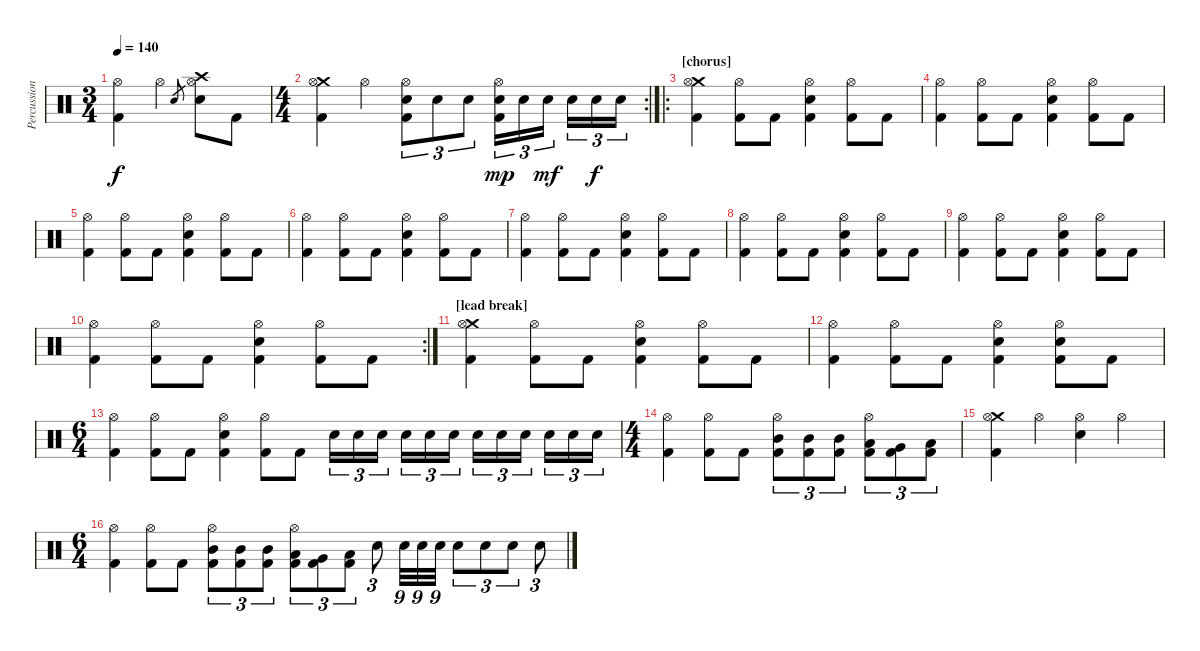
\track ("Percussion" "Percussion") {instrument percussion}
\staff {score}
\articulation defaults
\ts (3 4)
\tempo 140
\clef neutral
\ks c
("Hi-Hat (open)" "Kick (hit) 2").4{dy f} "Hi-Hat (open)".4 "Electric Snare (hit)".8{gr} ("Crash high (hit)" "Hi-Hat (open)" "Electric Snare (hit)").8 "Kick (hit) 2".8 |
\rc 2
\ts (4 4)
("Crash medium (hit)" "Hi-Hat (open)" "Kick (hit) 2").4 "Hi-Hat (open)".4 ("Hi-Hat (open)" "Electric Snare (hit)" "Kick (hit) 2").8{tu (3 2)} "Electric Snare (hit)".8{tu (3 2)} "Electric Snare (hit)".8{tu (3 2)} ("Hi-Hat (open)" "Electric Snare (hit)" "Kick (hit) 2").16{tu (3 2) dy mp} "Electric Snare (hit)".16{tu (3 2)} "Electric Snare (hit)".16{tu (3 2) dy mf} "Electric Snare (hit)".16{tu (3 2)} "Electric Snare (hit)".16{tu (3 2) dy f} "Electric Snare (hit)".16{tu (3 2)} |
\ro
\section ("" "[chorus]")
("Crash medium (hit)" "Hi-Hat (open)" "Kick (hit) 2").4 ("Hi-Hat (open)" "Kick (hit) 2").8 "Kick (hit) 2".8 ("Hi-Hat (open)" "Electric Snare (hit)" "Kick (hit) 2").4 ("Hi-Hat (open)" "Kick (hit) 2").8 "Kick (hit) 2".8 |
("Hi-Hat (open)" "Kick (hit) 2").4 ("Hi-Hat (open)" "Kick (hit) 2").8 "Kick (hit) 2".8 ("Hi-Hat (open)" "Electric Snare (hit)" "Kick (hit) 2").4 ("Hi-Hat (open)" "Kick (hit) 2").8 "Kick (hit) 2".8 |
("Hi-Hat (open)" "Kick (hit) 2").4 ("Hi-Hat (open)" "Kick (hit) 2").8 "Kick (hit) 2".8 ("Hi-Hat (open)" "Electric Snare (hit)" "Kick (hit) 2").4 ("Hi-Hat (open)" "Kick (hit) 2").8 "Kick (hit) 2".8 |
("Hi-Hat (open)" "Kick (hit) 2").4 ("Hi-Hat (open)" "Kick (hit) 2").8 "Kick (hit) 2".8 ("Hi-Hat (open)" "Electric Snare (hit)" "Kick (hit) 2").4 ("Hi-Hat (open)" "Kick (hit) 2").8 "Kick (hit) 2".8 |
("Hi-Hat (open)" "Kick (hit) 2").4 ("Hi-Hat (open)" "Kick (hit) 2").8 "Kick (hit) 2".8 ("Hi-Hat (open)" "Electric Snare (hit)" "Kick (hit) 2").4 ("Hi-Hat (open)" "Kick (hit) 2").8 "Kick (hit) 2".8 |
("Hi-Hat (open)" "Kick (hit) 2").4 ("Hi-Hat (open)" "Kick (hit) 2").8 "Kick (hit) 2".8 ("Hi-Hat (open)" "Electric Snare (hit)" "Kick (hit) 2").4 ("Hi-Hat (open)" "Kick (hit) 2").8 "Kick (hit) 2".8 |
("Hi-Hat (open)" "Kick (hit) 2").4 ("Hi-Hat (open)" "Kick (hit) 2").8 "Kick (hit) 2".8 ("Hi-Hat (open)" "Electric Snare (hit)" "Kick (hit) 2").4 ("Hi-Hat (open)" "Kick (hit) 2").8 "Kick (hit) 2".8 |
\rc 2
("Hi-Hat (open)" "Kick (hit) 2").4 ("Hi-Hat (open)" "Kick (hit) 2").8 "Kick (hit) 2".8 ("Hi-Hat (open)" "Electric Snare (hit)" "Kick (hit) 2").4 ("Hi-Hat (open)" "Kick (hit) 2").8 "Kick (hit) 2".8 |
\section ("" "[lead break]")
("Crash medium (hit)" "Hi-Hat (open)" "Kick (hit) 2").4 ("Hi-Hat (open)" "Kick (hit) 2").8 "Kick (hit) 2".8 ("Hi-Hat (open)" "Electric Snare (hit)" "Kick (hit) 2").4 ("Hi-Hat (open)" "Kick (hit) 2").8 "Kick (hit) 2".8 |
("Hi-Hat (open)" "Kick (hit) 2").4 ("Hi-Hat (open)" "Kick (hit) 2").8 "Kick (hit) 2".8 ("Hi-Hat (open)" "Electric Snare (hit)" "Kick (hit) 2").4 ("Hi-Hat (open)" "Electric Snare (hit)" "Kick (hit) 2").8 "Kick (hit) 2".8 |
\ts (6 4)
("Hi-Hat (open)" "Kick (hit) 2").4 ("Hi-Hat (open)" "Kick (hit) 2").8 "Kick (hit) 2".8 ("Hi-Hat (open)" "Electric Snare (hit)" "Kick (hit) 2").4 ("Hi-Hat (open)" "Kick (hit) 2").8 "Kick (hit) 2".8 "Electric Snare (hit)".16{tu (3 2)} "Electric Snare (hit)".16{tu (3 2)} "Electric Snare (hit)".16{tu (3 2)} "Electric Snare (hit)".16{tu (3 2)} "Electric Snare (hit)".16{tu (3 2)} "Electric Snare (hit)".16{tu (3 2)} "Electric Snare (hit)".16{tu (3 2)} "Electric Snare (hit)".16{tu (3 2)} "Electric Snare (hit)".16{tu (3 2)} "Electric Snare (hit)".16{tu (3 2)} "Electric Snare (hit)".16{tu (3 2)} "Electric Snare (hit)".16{tu (3 2)} |
\ts (4 4)
("Hi-Hat (open)" "Kick (hit) 2").4 ("Hi-Hat (open)" "Kick (hit) 2").8 "Kick (hit) 2".8 ("Hi-Hat (open)" "Mid Tom (hit)" "Kick (hit) 2").8{tu (3 2)} ("Mid Tom (hit)" "Kick (hit) 2").8{tu (3 2)} ("Mid Tom (hit)" "Kick (hit) 2").8{tu (3 2)} ("Hi-Hat (open)" "Low Tom (hit)" "Kick (hit) 2").8{tu (3 2)} ("Very Low Tom (hit)" "Kick (hit) 2").8{tu (3 2)} ("Low Floor Tom (hit)" "Kick (hit) 2").8{tu (3 2)} |
("Crash medium (hit)" "Hi-Hat (open)" "Kick (hit) 2").4 "Hi-Hat (open)".4 ("Hi-Hat (open)" "Electric Snare (hit)").4 "Hi-Hat (open)".4 |
\ts (6 4)
("Hi-Hat (open)" "Kick (hit) 2").4 ("Hi-Hat (open)" "Kick (hit) 2").8 "Kick (hit) 2".8 ("Hi-Hat (open)" "Mid Tom (hit)" "Kick (hit) 2").8{tu (3 2)} ("Mid Tom (hit)" "Kick (hit) 2").8{tu (3 2)} ("Mid Tom (hit)" "Kick (hit) 2").8{tu (3 2)} ("Hi-Hat (open)" "Low Tom (hit)" "Kick (hit) 2").8{tu (3 2)} ("Very Low Tom (hit)" "Kick (hit) 2").8{tu (3 2)} ("Low Floor Tom (hit)" "Kick (hit) 2").8{tu (3 2)} "Electric Snare (hit)".8{tu (3 2)} "Electric Snare (hit)".32{tu (9 8)} "Electric Snare (hit)".32{tu (9 8)} "Electric Snare (hit)".32{tu (9 8)} "Electric Snare (hit)".8{tu (3 2)} "Electric Snare (hit)".8{tu (3 2)} "Electric Snare (hit)".8{tu (3 2)} "Electric Snare (hit)".8{tu (3 2)}
